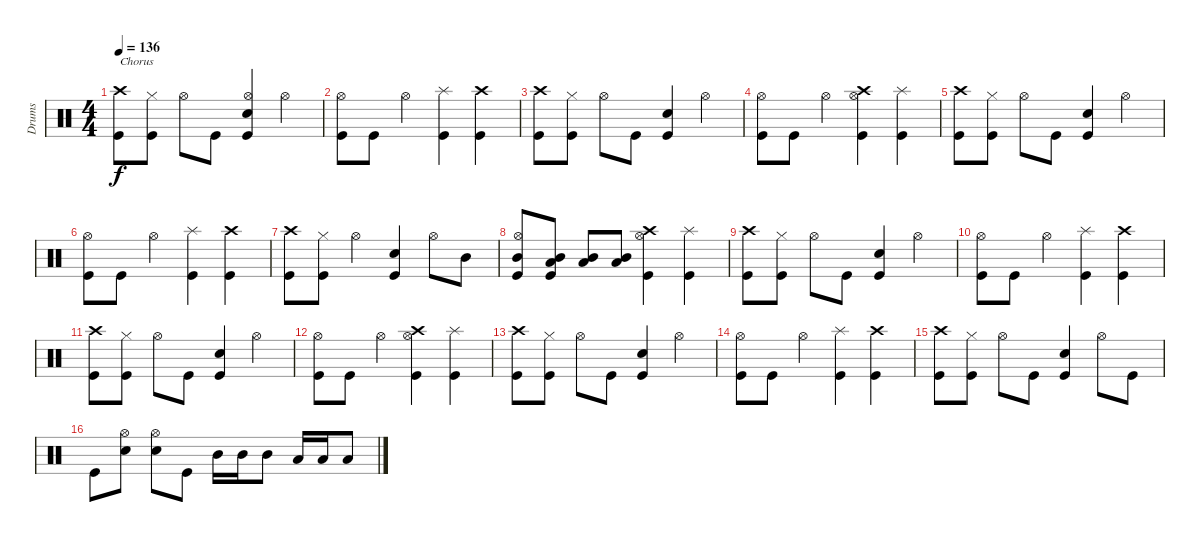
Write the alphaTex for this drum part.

\track ("Drums" "Drums") {instrument percussion}
\staff {score}
\articulation defaults
\ts (4 4)
\tempo 136
\clef neutral
\ks c
("Crash high (hit)" "Kick (hit)").8{txt "Chorus" dy f} ("Hi-Hat (closed)" "Kick (hit)").8 "Hi-Hat (open)".8 "Kick (hit)".8 ("Hi-Hat (open)" "Snare (hit) 2" "Kick (hit)").4 "Hi-Hat (open)".4 |
("Hi-Hat (open)" "Kick (hit)").8 "Kick (hit)".8 "Hi-Hat (open)".4 ("Splash (hit)" "Kick (hit)").4 ("Crash high (hit)" "Kick (hit)").4 |
("Crash high (hit)" "Kick (hit)").8 ("Hi-Hat (closed)" "Kick (hit)").8 "Hi-Hat (open)".8 "Kick (hit)".8 ("Snare (hit) 2" "Kick (hit)").4 "Hi-Hat (open)".4 |
("Hi-Hat (open)" "Kick (hit)").8 "Kick (hit)".8 "Hi-Hat (open)".4 ("Crash high (hit)" "Hi-Hat (open)" "Kick (hit)").4 ("Splash (hit)" "Kick (hit)").4 |
("Crash high (hit)" "Kick (hit)").8 ("Hi-Hat (closed)" "Kick (hit)").8 "Hi-Hat (open)".8 "Kick (hit)".8 ("Snare (hit) 2" "Kick (hit)").4 "Hi-Hat (open)".4 |
("Hi-Hat (open)" "Kick (hit)").8 "Kick (hit)".8 "Hi-Hat (open)".4 ("Splash (hit)" "Kick (hit)").4 ("Crash high (hit)" "Kick (hit)").4 |
("Crash high (hit)" "Kick (hit)").8 ("Hi-Hat (closed)" "Kick (hit)").8 "Hi-Hat (open)".4 ("Snare (hit) 2" "Kick (hit)").4 "Hi-Hat (open)".8 "Mid Tom (hit)".8 |
("Mid Tom (hit)" "Hi-Hat (open)" "Kick (hit)").8 ("Mid Tom (hit)" "Low Tom (hit)" "Kick (hit)").8 ("Mid Tom (hit)" "Low Tom (hit)").8 ("Mid Tom (hit)" "Low Tom (hit)").8 ("Crash high (hit)" "Hi-Hat (open)" "Kick (hit)").4 ("Splash (hit)" "Kick (hit)").4 |
("Crash high (hit)" "Kick (hit)").8 ("Hi-Hat (closed)" "Kick (hit)").8 "Hi-Hat (open)".8 "Kick (hit)".8 ("Snare (hit) 2" "Kick (hit)").4 "Hi-Hat (open)".4 |
("Hi-Hat (open)" "Kick (hit)").8 "Kick (hit)".8 "Hi-Hat (open)".4 ("Splash (hit)" "Kick (hit)").4 ("Crash high (hit)" "Kick (hit)").4 |
("Crash high (hit)" "Kick (hit)").8 ("Hi-Hat (closed)" "Kick (hit)").8 "Hi-Hat (open)".8 "Kick (hit)".8 ("Snare (hit) 2" "Kick (hit)").4 "Hi-Hat (open)".4 |
("Hi-Hat (open)" "Kick (hit)").8 "Kick (hit)".8 "Hi-Hat (open)".4 ("Crash high (hit)" "Hi-Hat (open)" "Kick (hit)").4 ("Splash (hit)" "Kick (hit)").4 |
("Crash high (hit)" "Kick (hit)").8 ("Hi-Hat (closed)" "Kick (hit)").8 "Hi-Hat (open)".8 "Kick (hit)".8 ("Snare (hit) 2" "Kick (hit)").4 "Hi-Hat (open)".4 |
("Hi-Hat (open)" "Kick (hit)").8 "Kick (hit)".8 "Hi-Hat (open)".4 ("Splash (hit)" "Kick (hit)").4 ("Crash high (hit)" "Kick (hit)").4 |
("Crash high (hit)" "Kick (hit)").8 ("Hi-Hat (closed)" "Kick (hit)").8 "Hi-Hat (open)".8 "Kick (hit)".8 ("Snare (hit) 2" "Kick (hit)").4 "Hi-Hat (open)".8 "Kick (hit)".8 |
"Kick (hit)".8 ("Hi-Hat (open)" "Snare (hit) 2").8 ("Hi-Hat (open)" "Snare (hit) 2").8 "Kick (hit)".8 "Mid Tom (hit)".16 "Mid Tom (hit)".16 "Mid Tom (hit)".8 "Low Tom (hit)".16 "Low Tom (hit)".16 "Low Tom (hit)".8
